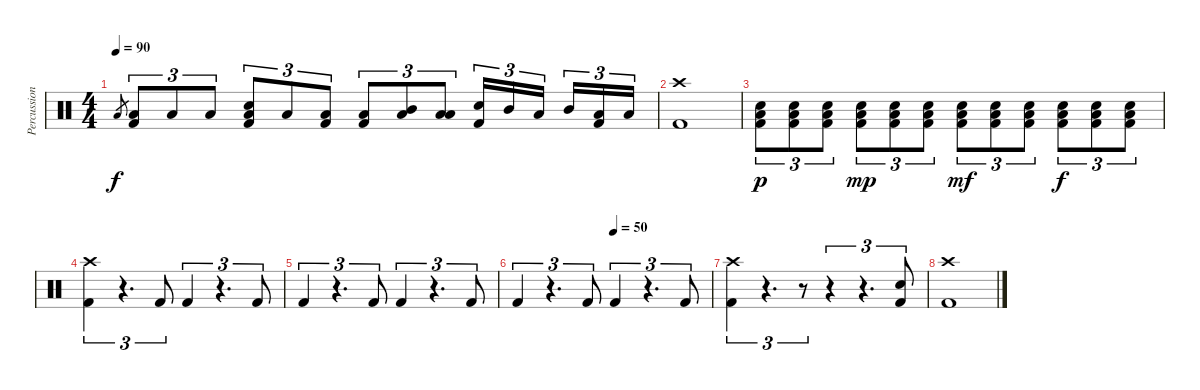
\track ("Percussion" "Percussion") {instrument percussion}
\staff {score}
\articulation defaults
\ts (4 4)
\tempo 90
\clef neutral
\ks c "Low Floor Tom (hit)".8{gr dy f}
("Low Floor Tom (hit)" "Kick (hit) 2").8{tu (3 2)} "Low Floor Tom (hit)".8{tu (3 2)} "Low Floor Tom (hit)".8{tu (3 2)} ("Low Floor Tom (hit)" "Snare (hit) 2" "Kick (hit) 2").8{tu (3 2)} "Low Floor Tom (hit)".8{tu (3 2)} ("Low Floor Tom (hit)" "Kick (hit) 2").8{tu (3 2)} ("Low Floor Tom (hit)" "Kick (hit) 2").8{tu (3 2)} ("Low Floor Tom (hit)" "Mid Tom (hit)").8{tu (3 2)} ("Low Floor Tom (hit)" "Low Tom (hit)").8{tu (3 2)} ("Snare (hit) 2" "Kick (hit) 2").16{tu (3 2)} "Mid Tom (hit)".16{tu (3 2)} "Low Tom (hit)".16{tu (3 2)} "Mid Tom (hit)".16{tu (3 2)} ("Low Tom (hit)" "Kick (hit) 2").16{tu (3 2)} "Low Floor Tom (hit)".16{tu (3 2)} |
("Crash high (hit)" "Kick (hit) 2").1 |
("Low Floor Tom (hit)" "Snare (hit) 2" "Kick (hit) 2").8{tu (3 2) dy p} ("Low Floor Tom (hit)" "Snare (hit) 2" "Kick (hit) 2").8{tu (3 2)} ("Low Floor Tom (hit)" "Snare (hit) 2" "Kick (hit) 2").8{tu (3 2)} ("Low Floor Tom (hit)" "Snare (hit) 2" "Kick (hit) 2").8{tu (3 2) dy mp} ("Low Floor Tom (hit)" "Snare (hit) 2" "Kick (hit) 2").8{tu (3 2)} ("Low Floor Tom (hit)" "Snare (hit) 2" "Kick (hit) 2").8{tu (3 2)} ("Low Floor Tom (hit)" "Snare (hit) 2" "Kick (hit) 2").8{tu (3 2) dy mf} ("Low Floor Tom (hit)" "Snare (hit) 2" "Kick (hit) 2").8{tu (3 2)} ("Low Floor Tom (hit)" "Snare (hit) 2" "Kick (hit) 2").8{tu (3 2)} ("Low Floor Tom (hit)" "Snare (hit) 2" "Kick (hit) 2").8{tu (3 2) dy f} ("Low Floor Tom (hit)" "Snare (hit) 2" "Kick (hit) 2").8{tu (3 2)} ("Low Floor Tom (hit)" "Snare (hit) 2" "Kick (hit) 2").8{tu (3 2)} |
("Crash high (hit)" "Kick (hit) 2").4{tu (3 2)} r.4{d tu (3 2)} "Kick (hit) 2".8{tu (3 2)} "Kick (hit) 2".4{tu (3 2)} r.4{d tu (3 2)} "Kick (hit) 2".8{tu (3 2)} |
"Kick (hit) 2".4{tu (3 2)} r.4{d tu (3 2)} "Kick (hit) 2".8{tu (3 2)} "Kick (hit) 2".4{tu (3 2)} r.4{d tu (3 2)} "Kick (hit) 2".8{tu (3 2)} |
\tempo (50 0.5)
"Kick (hit) 2".4{tu (3 2)} r.4{d tu (3 2)} "Kick (hit) 2".8{tu (3 2)} "Kick (hit) 2".4{tu (3 2)} r.4{d tu (3 2)} "Kick (hit) 2".8{tu (3 2)} |
("Crash high (hit)" "Kick (hit) 2").4{tu (3 2)} r.4{d tu (3 2)} r.8{tu (3 2)} r.4{tu (3 2)} r.4{d tu (3 2)} ("Snare (hit) 2" "Kick (hit) 2").8{tu (3 2)} |
("Crash high (hit)" "Kick (hit) 2").1
